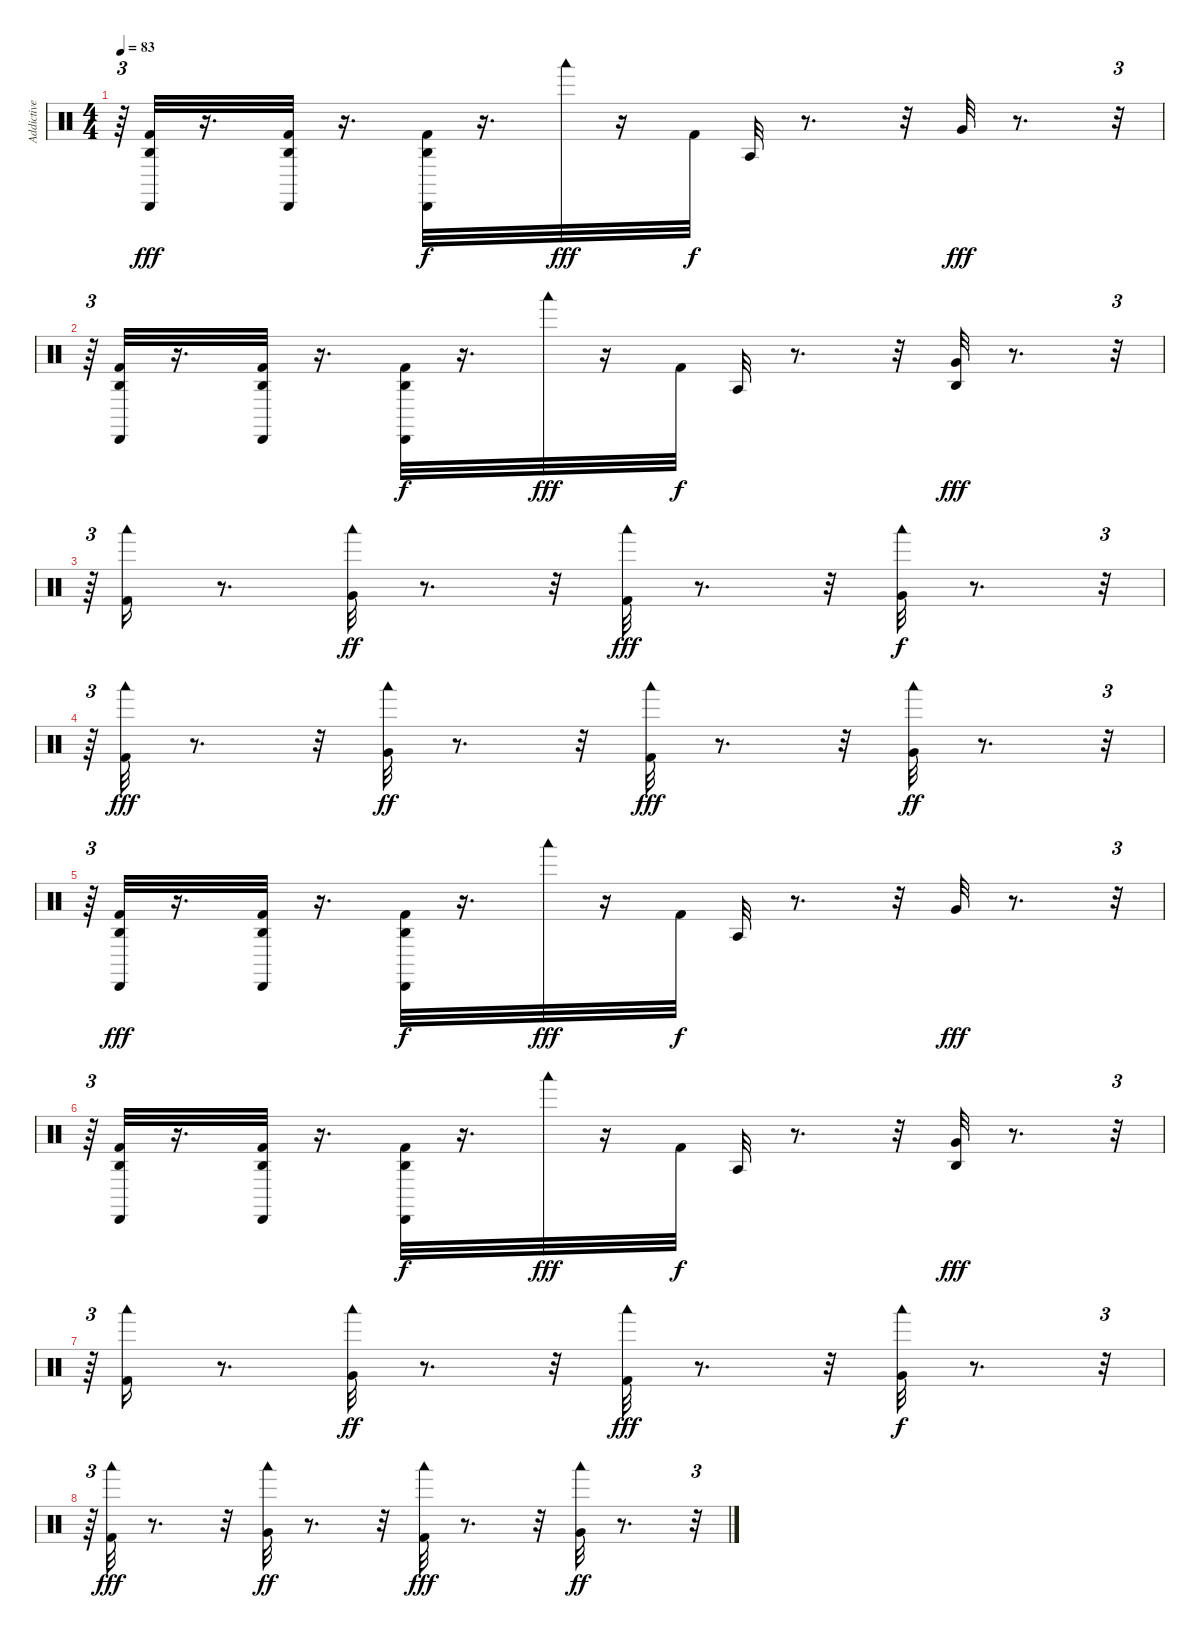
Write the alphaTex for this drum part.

\track ("Addictive Drums 2 01" "Addictive ") {instrument percussion}
\staff {score}
\articulation defaults
\ts (4 4)
\tempo 83
\clef neutral
\ks c
r.64{tu (3 2) dy ff} ("Kick (hit) 2" "Cabasa (hit)" "Agogo high (hit)").32{dy fff} r.16{d} ("Kick (hit) 2" "Cabasa (hit)" "Agogo high (hit)").32 r.16{d} ("Cabasa (hit)" "Kick (hit) 2" "Agogo high (hit)").32{dy f} r.16{d} "Woodblock low (hit)".32{dy fff} r.16 "Kick (hit) 2".32{dy f} "Agogo tow (hit)".32 r.8{d} r.32 "Very Low Tom (hit)".32{dy fff} r.8{d} r.32{tu (3 2)} |
r.64{tu (3 2)} ("Kick (hit) 2" "Cabasa (hit)" "Agogo high (hit)").32 r.16{d} ("Kick (hit) 2" "Cabasa (hit)" "Agogo high (hit)").32 r.16{d} ("Cabasa (hit)" "Kick (hit) 2" "Agogo high (hit)").32{dy f} r.16{d} "Woodblock low (hit)".32{dy fff} r.16 "Kick (hit) 2".32{dy f} "Agogo tow (hit)".32 r.8{d} r.32 ("Very Low Tom (hit)" "Agogo high (hit)").32{dy fff} r.8{d} r.32{tu (3 2)} |
r.64{tu (3 2)} ("Woodblock low (hit)" "Kick (hit) 2").16 r.8{d} ("Woodblock low (hit)" "Very Low Tom (hit)").32{dy ff} r.8{d} r.32 ("Kick (hit) 2" "Woodblock low (hit)").32{dy fff} r.8{d} r.32 ("Very Low Tom (hit)" "Woodblock low (hit)").32{dy f} r.8{d} r.32{tu (3 2)} |
r.64{tu (3 2)} ("Woodblock low (hit)" "Kick (hit) 2").32{dy fff} r.8{d} r.32 ("Very Low Tom (hit)" "Woodblock low (hit)").32{dy ff} r.8{d} r.32 ("Kick (hit) 2" "Woodblock low (hit)").32{dy fff} r.8{d} r.32 ("Very Low Tom (hit)" "Woodblock low (hit)").32{dy ff} r.8{d} r.32{tu (3 2)} |
r.64{tu (3 2)} ("Kick (hit) 2" "Cabasa (hit)" "Agogo high (hit)").32{dy fff} r.16{d} ("Kick (hit) 2" "Cabasa (hit)" "Agogo high (hit)").32 r.16{d} ("Cabasa (hit)" "Kick (hit) 2" "Agogo high (hit)").32{dy f} r.16{d} "Woodblock low (hit)".32{dy fff} r.16 "Kick (hit) 2".32{dy f} "Agogo tow (hit)".32 r.8{d} r.32 "Very Low Tom (hit)".32{dy fff} r.8{d} r.32{tu (3 2)} |
r.64{tu (3 2)} ("Kick (hit) 2" "Cabasa (hit)" "Agogo high (hit)").32 r.16{d} ("Kick (hit) 2" "Cabasa (hit)" "Agogo high (hit)").32 r.16{d} ("Cabasa (hit)" "Kick (hit) 2" "Agogo high (hit)").32{dy f} r.16{d} "Woodblock low (hit)".32{dy fff} r.16 "Kick (hit) 2".32{dy f} "Agogo tow (hit)".32 r.8{d} r.32 ("Very Low Tom (hit)" "Agogo high (hit)").32{dy fff} r.8{d} r.32{tu (3 2)} |
r.64{tu (3 2)} ("Woodblock low (hit)" "Kick (hit) 2").16 r.8{d} ("Woodblock low (hit)" "Very Low Tom (hit)").32{dy ff} r.8{d} r.32 ("Kick (hit) 2" "Woodblock low (hit)").32{dy fff} r.8{d} r.32 ("Very Low Tom (hit)" "Woodblock low (hit)").32{dy f} r.8{d} r.32{tu (3 2)} |
r.64{tu (3 2)} ("Woodblock low (hit)" "Kick (hit) 2").32{dy fff} r.8{d} r.32 ("Very Low Tom (hit)" "Woodblock low (hit)").32{dy ff} r.8{d} r.32 ("Kick (hit) 2" "Woodblock low (hit)").32{dy fff} r.8{d} r.32 ("Very Low Tom (hit)" "Woodblock low (hit)").32{dy ff} r.8{d} r.32{tu (3 2)}
